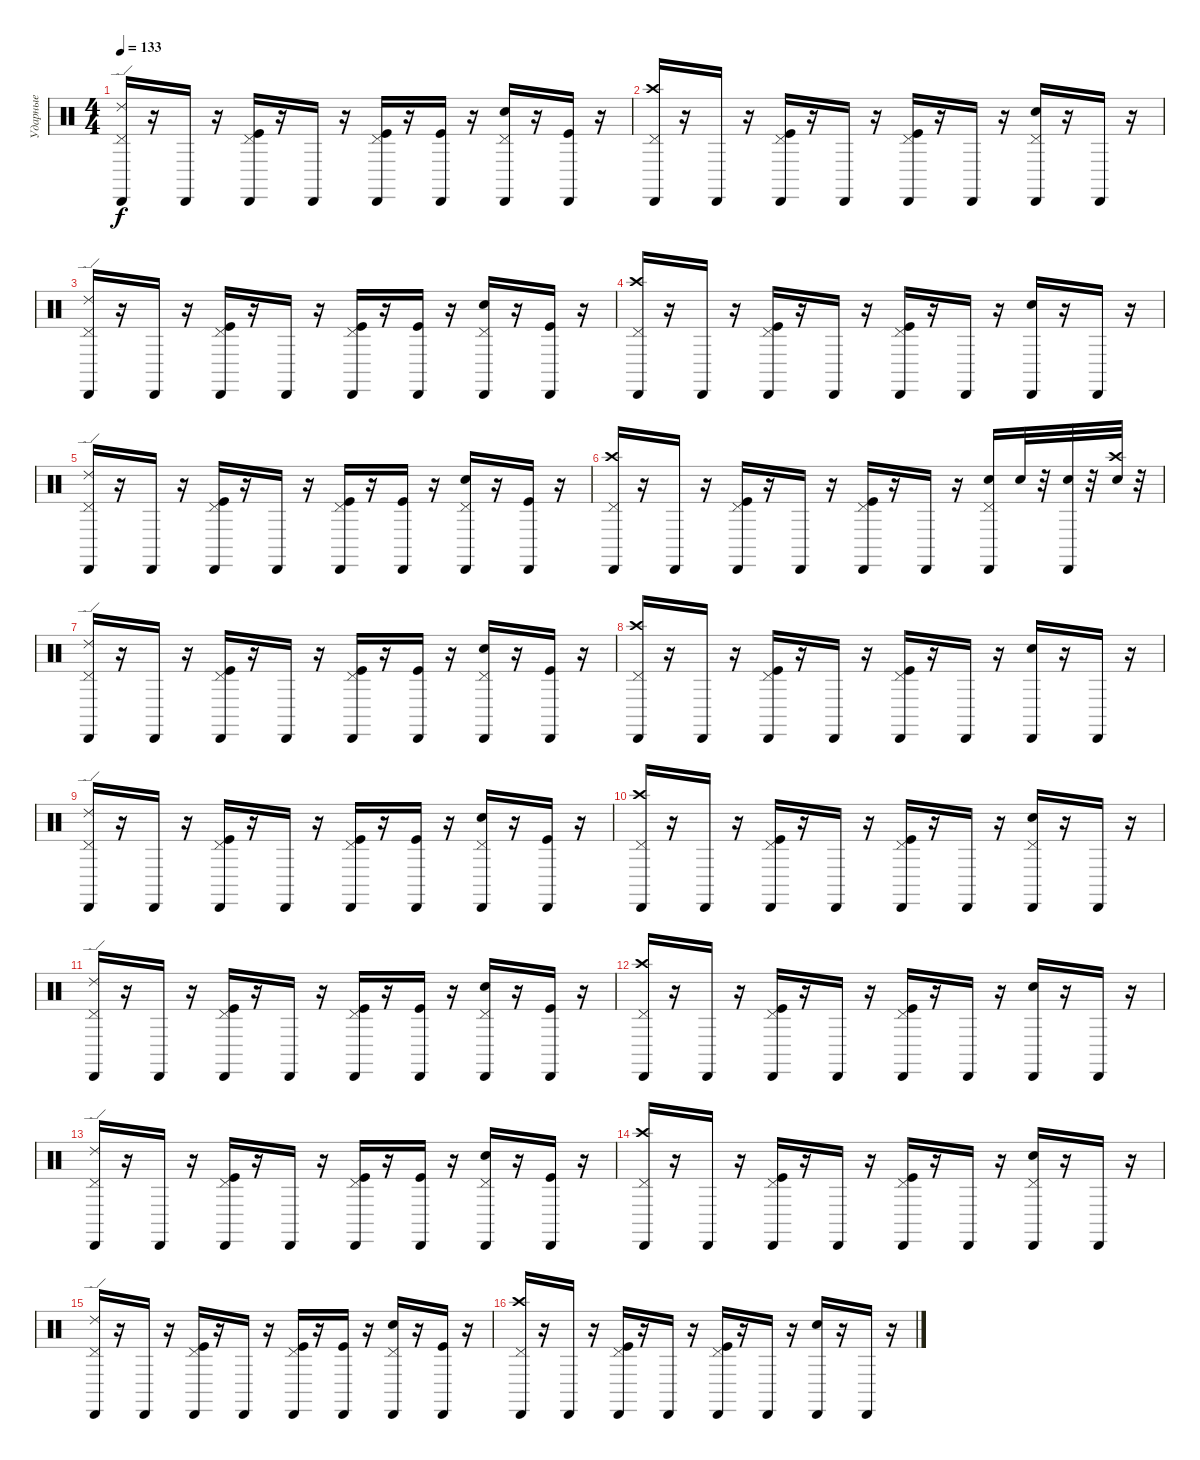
\track ("Ударные" "Ударные") {instrument percussion}
\staff {score}
\articulation defaults
\ts (4 4)
\tempo 133
\clef neutral
\ks c
("Cabasa (hit)" "Pedal Hi-Hat (hit)" "Ride (edge) 2").16{dy f} r.16 "Cabasa (hit)".16 r.16 ("Cabasa (hit)" "Pedal Hi-Hat (hit)" "Kick (hit)").16 r.16 "Cabasa (hit)".16 r.16 ("Cabasa (hit)" "Pedal Hi-Hat (hit)" "Kick (hit)").16 r.16 ("Cabasa (hit)" "Kick (hit)").16 r.16 ("Cabasa (hit)" "Pedal Hi-Hat (hit)" "Snare (hit) 2").16 r.16 ("Cabasa (hit)" "Kick (hit)").16 r.16 |
("Cabasa (hit)" "Pedal Hi-Hat (hit)" "Crash high (hit)").16 r.16 "Cabasa (hit)".16 r.16 ("Cabasa (hit)" "Pedal Hi-Hat (hit)" "Kick (hit)").16 r.16 "Cabasa (hit)".16 r.16 ("Cabasa (hit)" "Pedal Hi-Hat (hit)" "Kick (hit)").16 r.16 "Cabasa (hit)".16 r.16 ("Cabasa (hit)" "Pedal Hi-Hat (hit)" "Electric Snare (hit)").16 r.16 "Cabasa (hit)".16 r.16 |
("Cabasa (hit)" "Pedal Hi-Hat (hit)" "Ride (edge) 2").16 r.16 "Cabasa (hit)".16 r.16 ("Cabasa (hit)" "Pedal Hi-Hat (hit)" "Kick (hit)").16 r.16 "Cabasa (hit)".16 r.16 ("Cabasa (hit)" "Pedal Hi-Hat (hit)" "Kick (hit)").16 r.16 ("Cabasa (hit)" "Kick (hit)").16 r.16 ("Cabasa (hit)" "Pedal Hi-Hat (hit)" "Snare (hit) 2").16 r.16 ("Cabasa (hit)" "Kick (hit)").16 r.16 |
("Cabasa (hit)" "Pedal Hi-Hat (hit)" "Crash high (hit)").16 r.16 "Cabasa (hit)".16 r.16 ("Cabasa (hit)" "Pedal Hi-Hat (hit)" "Kick (hit)").16 r.16 "Cabasa (hit)".16 r.16 ("Cabasa (hit)" "Pedal Hi-Hat (hit)" "Kick (hit)").16 r.16 "Cabasa (hit)".16 r.16 ("Cabasa (hit)" "Electric Snare (hit)").16 r.16 "Cabasa (hit)".16 r.16 |
("Cabasa (hit)" "Pedal Hi-Hat (hit)" "Ride (edge) 2").16 r.16 "Cabasa (hit)".16 r.16 ("Cabasa (hit)" "Pedal Hi-Hat (hit)" "Kick (hit)").16 r.16 "Cabasa (hit)".16 r.16 ("Cabasa (hit)" "Pedal Hi-Hat (hit)" "Kick (hit)").16 r.16 ("Cabasa (hit)" "Kick (hit)").16 r.16 ("Cabasa (hit)" "Pedal Hi-Hat (hit)" "Snare (hit) 2").16 r.16 ("Cabasa (hit)" "Kick (hit)").16 r.16 |
("Cabasa (hit)" "Pedal Hi-Hat (hit)" "Crash high (hit)").16 r.16 "Cabasa (hit)".16 r.16 ("Cabasa (hit)" "Pedal Hi-Hat (hit)" "Kick (hit)").16 r.16 "Cabasa (hit)".16 r.16 ("Cabasa (hit)" "Pedal Hi-Hat (hit)" "Kick (hit)").16 r.16 "Cabasa (hit)".16 r.16 ("Cabasa (hit)" "Pedal Hi-Hat (hit)" "Electric Snare (hit)").16 "Electric Snare (hit)".32 r.32 ("Cabasa (hit)" "Electric Snare (hit)").32 r.32 ("Electric Snare (hit)" "Crash high (hit)").32 r.32 |
("Cabasa (hit)" "Pedal Hi-Hat (hit)" "Ride (edge) 2").16 r.16 "Cabasa (hit)".16 r.16 ("Cabasa (hit)" "Pedal Hi-Hat (hit)" "Kick (hit)").16 r.16 "Cabasa (hit)".16 r.16 ("Cabasa (hit)" "Pedal Hi-Hat (hit)" "Kick (hit)").16 r.16 ("Cabasa (hit)" "Kick (hit)").16 r.16 ("Cabasa (hit)" "Pedal Hi-Hat (hit)" "Snare (hit) 2").16 r.16 ("Cabasa (hit)" "Kick (hit)").16 r.16 |
("Cabasa (hit)" "Pedal Hi-Hat (hit)" "Crash high (hit)").16 r.16 "Cabasa (hit)".16 r.16 ("Cabasa (hit)" "Pedal Hi-Hat (hit)" "Kick (hit)").16 r.16 "Cabasa (hit)".16 r.16 ("Cabasa (hit)" "Pedal Hi-Hat (hit)" "Kick (hit)").16 r.16 "Cabasa (hit)".16 r.16 ("Cabasa (hit)" "Electric Snare (hit)").16 r.16 "Cabasa (hit)".16 r.16 |
("Cabasa (hit)" "Pedal Hi-Hat (hit)" "Ride (edge) 2").16 r.16 "Cabasa (hit)".16 r.16 ("Cabasa (hit)" "Pedal Hi-Hat (hit)" "Kick (hit)").16 r.16 "Cabasa (hit)".16 r.16 ("Cabasa (hit)" "Pedal Hi-Hat (hit)" "Kick (hit)").16 r.16 ("Cabasa (hit)" "Kick (hit)").16 r.16 ("Cabasa (hit)" "Pedal Hi-Hat (hit)" "Snare (hit) 2").16 r.16 ("Cabasa (hit)" "Kick (hit)").16 r.16 |
("Cabasa (hit)" "Pedal Hi-Hat (hit)" "Crash high (hit)").16 r.16 "Cabasa (hit)".16 r.16 ("Cabasa (hit)" "Pedal Hi-Hat (hit)" "Kick (hit)").16 r.16 "Cabasa (hit)".16 r.16 ("Cabasa (hit)" "Pedal Hi-Hat (hit)" "Kick (hit)").16 r.16 "Cabasa (hit)".16 r.16 ("Cabasa (hit)" "Pedal Hi-Hat (hit)" "Electric Snare (hit)").16 r.16 "Cabasa (hit)".16 r.16 |
("Cabasa (hit)" "Pedal Hi-Hat (hit)" "Ride (edge) 2").16 r.16 "Cabasa (hit)".16 r.16 ("Cabasa (hit)" "Pedal Hi-Hat (hit)" "Kick (hit)").16 r.16 "Cabasa (hit)".16 r.16 ("Cabasa (hit)" "Pedal Hi-Hat (hit)" "Kick (hit)").16 r.16 ("Cabasa (hit)" "Kick (hit)").16 r.16 ("Cabasa (hit)" "Pedal Hi-Hat (hit)" "Snare (hit) 2").16 r.16 ("Cabasa (hit)" "Kick (hit)").16 r.16 |
("Cabasa (hit)" "Pedal Hi-Hat (hit)" "Crash high (hit)").16 r.16 "Cabasa (hit)".16 r.16 ("Cabasa (hit)" "Pedal Hi-Hat (hit)" "Kick (hit)").16 r.16 "Cabasa (hit)".16 r.16 ("Cabasa (hit)" "Pedal Hi-Hat (hit)" "Kick (hit)").16 r.16 "Cabasa (hit)".16 r.16 ("Cabasa (hit)" "Electric Snare (hit)").16 r.16 "Cabasa (hit)".16 r.16 |
("Cabasa (hit)" "Pedal Hi-Hat (hit)" "Ride (edge) 2").16 r.16 "Cabasa (hit)".16 r.16 ("Cabasa (hit)" "Pedal Hi-Hat (hit)" "Kick (hit)").16 r.16 "Cabasa (hit)".16 r.16 ("Cabasa (hit)" "Pedal Hi-Hat (hit)" "Kick (hit)").16 r.16 ("Cabasa (hit)" "Kick (hit)").16 r.16 ("Cabasa (hit)" "Pedal Hi-Hat (hit)" "Snare (hit) 2").16 r.16 ("Cabasa (hit)" "Kick (hit)").16 r.16 |
("Cabasa (hit)" "Pedal Hi-Hat (hit)" "Crash high (hit)").16 r.16 "Cabasa (hit)".16 r.16 ("Cabasa (hit)" "Pedal Hi-Hat (hit)" "Kick (hit)").16 r.16 "Cabasa (hit)".16 r.16 ("Cabasa (hit)" "Pedal Hi-Hat (hit)" "Kick (hit)").16 r.16 "Cabasa (hit)".16 r.16 ("Cabasa (hit)" "Pedal Hi-Hat (hit)" "Electric Snare (hit)").16 r.16 "Cabasa (hit)".16 r.16 |
("Cabasa (hit)" "Pedal Hi-Hat (hit)" "Ride (edge) 2").16 r.16 "Cabasa (hit)".16 r.16 ("Cabasa (hit)" "Pedal Hi-Hat (hit)" "Kick (hit)").16 r.16 "Cabasa (hit)".16 r.16 ("Cabasa (hit)" "Pedal Hi-Hat (hit)" "Kick (hit)").16 r.16 ("Cabasa (hit)" "Kick (hit)").16 r.16 ("Cabasa (hit)" "Pedal Hi-Hat (hit)" "Snare (hit) 2").16 r.16 ("Cabasa (hit)" "Kick (hit)").16 r.16 |
("Cabasa (hit)" "Pedal Hi-Hat (hit)" "Crash high (hit)").16 r.16 "Cabasa (hit)".16 r.16 ("Cabasa (hit)" "Pedal Hi-Hat (hit)" "Kick (hit)").16 r.16 "Cabasa (hit)".16 r.16 ("Cabasa (hit)" "Pedal Hi-Hat (hit)" "Kick (hit)").16 r.16 "Cabasa (hit)".16 r.16 ("Cabasa (hit)" "Electric Snare (hit)").16 r.16 "Cabasa (hit)".16 r.16
